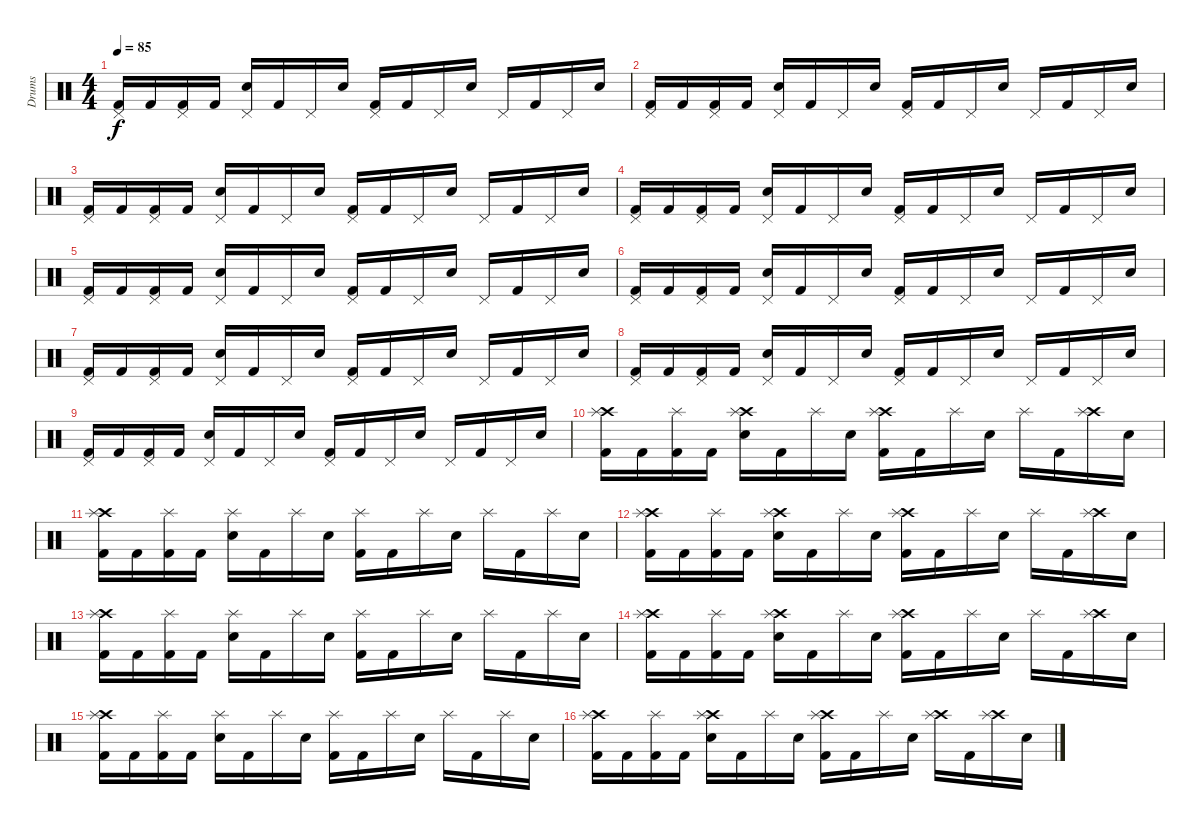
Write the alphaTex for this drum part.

\track ("Drums" "Drums") {instrument percussion}
\staff {score}
\articulation defaults
\ts (4 4)
\tempo 85
\clef neutral
\ks c
("Pedal Hi-Hat (hit)" "Kick (hit) 2").16{dy f} "Kick (hit) 2".16 ("Pedal Hi-Hat (hit)" "Kick (hit) 2").16 "Kick (hit) 2".16 ("Pedal Hi-Hat (hit)" "Snare (hit) 2").16 "Kick (hit) 2".16 "Pedal Hi-Hat (hit)".16 "Snare (hit) 2".16 ("Pedal Hi-Hat (hit)" "Kick (hit) 2").16 "Kick (hit) 2".16 "Pedal Hi-Hat (hit)".16 "Snare (hit) 2".16 "Pedal Hi-Hat (hit)".16 "Kick (hit) 2".16 "Pedal Hi-Hat (hit)".16 "Snare (hit) 2".16 |
("Pedal Hi-Hat (hit)" "Kick (hit) 2").16 "Kick (hit) 2".16 ("Pedal Hi-Hat (hit)" "Kick (hit) 2").16 "Kick (hit) 2".16 ("Pedal Hi-Hat (hit)" "Snare (hit) 2").16 "Kick (hit) 2".16 "Pedal Hi-Hat (hit)".16 "Snare (hit) 2".16 ("Pedal Hi-Hat (hit)" "Kick (hit) 2").16 "Kick (hit) 2".16 "Pedal Hi-Hat (hit)".16 "Snare (hit) 2".16 "Pedal Hi-Hat (hit)".16 "Kick (hit) 2".16 "Pedal Hi-Hat (hit)".16 "Snare (hit) 2".16 |
("Pedal Hi-Hat (hit)" "Kick (hit) 2").16 "Kick (hit) 2".16 ("Pedal Hi-Hat (hit)" "Kick (hit) 2").16 "Kick (hit) 2".16 ("Pedal Hi-Hat (hit)" "Snare (hit) 2").16 "Kick (hit) 2".16 "Pedal Hi-Hat (hit)".16 "Snare (hit) 2".16 ("Pedal Hi-Hat (hit)" "Kick (hit) 2").16 "Kick (hit) 2".16 "Pedal Hi-Hat (hit)".16 "Snare (hit) 2".16 "Pedal Hi-Hat (hit)".16 "Kick (hit) 2".16 "Pedal Hi-Hat (hit)".16 "Snare (hit) 2".16 |
("Pedal Hi-Hat (hit)" "Kick (hit) 2").16 "Kick (hit) 2".16 ("Pedal Hi-Hat (hit)" "Kick (hit) 2").16 "Kick (hit) 2".16 ("Pedal Hi-Hat (hit)" "Snare (hit) 2").16 "Kick (hit) 2".16 "Pedal Hi-Hat (hit)".16 "Snare (hit) 2".16 ("Pedal Hi-Hat (hit)" "Kick (hit) 2").16 "Kick (hit) 2".16 "Pedal Hi-Hat (hit)".16 "Snare (hit) 2".16 "Pedal Hi-Hat (hit)".16 "Kick (hit) 2".16 "Pedal Hi-Hat (hit)".16 "Snare (hit) 2".16 |
("Pedal Hi-Hat (hit)" "Kick (hit) 2").16 "Kick (hit) 2".16 ("Pedal Hi-Hat (hit)" "Kick (hit) 2").16 "Kick (hit) 2".16 ("Pedal Hi-Hat (hit)" "Snare (hit) 2").16 "Kick (hit) 2".16 "Pedal Hi-Hat (hit)".16 "Snare (hit) 2".16 ("Pedal Hi-Hat (hit)" "Kick (hit) 2").16 "Kick (hit) 2".16 "Pedal Hi-Hat (hit)".16 "Snare (hit) 2".16 "Pedal Hi-Hat (hit)".16 "Kick (hit) 2".16 "Pedal Hi-Hat (hit)".16 "Snare (hit) 2".16 |
("Pedal Hi-Hat (hit)" "Kick (hit) 2").16 "Kick (hit) 2".16 ("Pedal Hi-Hat (hit)" "Kick (hit) 2").16 "Kick (hit) 2".16 ("Pedal Hi-Hat (hit)" "Snare (hit) 2").16 "Kick (hit) 2".16 "Pedal Hi-Hat (hit)".16 "Snare (hit) 2".16 ("Pedal Hi-Hat (hit)" "Kick (hit) 2").16 "Kick (hit) 2".16 "Pedal Hi-Hat (hit)".16 "Snare (hit) 2".16 "Pedal Hi-Hat (hit)".16 "Kick (hit) 2".16 "Pedal Hi-Hat (hit)".16 "Snare (hit) 2".16 |
("Pedal Hi-Hat (hit)" "Kick (hit) 2").16 "Kick (hit) 2".16 ("Pedal Hi-Hat (hit)" "Kick (hit) 2").16 "Kick (hit) 2".16 ("Pedal Hi-Hat (hit)" "Snare (hit) 2").16 "Kick (hit) 2".16 "Pedal Hi-Hat (hit)".16 "Snare (hit) 2".16 ("Pedal Hi-Hat (hit)" "Kick (hit) 2").16 "Kick (hit) 2".16 "Pedal Hi-Hat (hit)".16 "Snare (hit) 2".16 "Pedal Hi-Hat (hit)".16 "Kick (hit) 2".16 "Pedal Hi-Hat (hit)".16 "Snare (hit) 2".16 |
("Pedal Hi-Hat (hit)" "Kick (hit) 2").16 "Kick (hit) 2".16 ("Pedal Hi-Hat (hit)" "Kick (hit) 2").16 "Kick (hit) 2".16 ("Pedal Hi-Hat (hit)" "Snare (hit) 2").16 "Kick (hit) 2".16 "Pedal Hi-Hat (hit)".16 "Snare (hit) 2".16 ("Pedal Hi-Hat (hit)" "Kick (hit) 2").16 "Kick (hit) 2".16 "Pedal Hi-Hat (hit)".16 "Snare (hit) 2".16 "Pedal Hi-Hat (hit)".16 "Kick (hit) 2".16 "Pedal Hi-Hat (hit)".16 "Snare (hit) 2".16 |
("Pedal Hi-Hat (hit)" "Kick (hit) 2").16 "Kick (hit) 2".16 ("Pedal Hi-Hat (hit)" "Kick (hit) 2").16 "Kick (hit) 2".16 ("Pedal Hi-Hat (hit)" "Snare (hit) 2").16 "Kick (hit) 2".16 "Pedal Hi-Hat (hit)".16 "Snare (hit) 2".16 ("Pedal Hi-Hat (hit)" "Kick (hit) 2").16 "Kick (hit) 2".16 "Pedal Hi-Hat (hit)".16 "Snare (hit) 2".16 "Pedal Hi-Hat (hit)".16 "Kick (hit) 2".16 "Pedal Hi-Hat (hit)".16 "Snare (hit) 2".16 |
("Crash high (hit)" "Splash (hit)" "Kick (hit) 2").16 "Kick (hit) 2".16 ("Splash (hit)" "Kick (hit) 2").16 "Kick (hit) 2".16 ("Crash high (hit)" "Splash (hit)" "Snare (hit) 2").16 "Kick (hit) 2".16 "Splash (hit)".16 "Snare (hit) 2".16 ("Crash high (hit)" "Splash (hit)" "Kick (hit) 2").16 "Kick (hit) 2".16 "Splash (hit)".16 "Snare (hit) 2".16 "Splash (hit)".16 "Kick (hit) 2".16 ("Crash high (hit)" "Splash (hit)").16 "Snare (hit) 2".16 |
("Crash high (hit)" "Splash (hit)" "Kick (hit) 2").16 "Kick (hit) 2".16 ("Splash (hit)" "Kick (hit) 2").16 "Kick (hit) 2".16 ("Splash (hit)" "Snare (hit) 2").16 "Kick (hit) 2".16 "Splash (hit)".16 "Snare (hit) 2".16 ("Splash (hit)" "Kick (hit) 2").16 "Kick (hit) 2".16 "Splash (hit)".16 "Snare (hit) 2".16 "Splash (hit)".16 "Kick (hit) 2".16 "Splash (hit)".16 "Snare (hit) 2".16 |
("Crash high (hit)" "Splash (hit)" "Kick (hit) 2").16 "Kick (hit) 2".16 ("Splash (hit)" "Kick (hit) 2").16 "Kick (hit) 2".16 ("Crash high (hit)" "Splash (hit)" "Snare (hit) 2").16 "Kick (hit) 2".16 "Splash (hit)".16 "Snare (hit) 2".16 ("Crash high (hit)" "Splash (hit)" "Kick (hit) 2").16 "Kick (hit) 2".16 "Splash (hit)".16 "Snare (hit) 2".16 "Splash (hit)".16 "Kick (hit) 2".16 ("Crash high (hit)" "Splash (hit)").16 "Snare (hit) 2".16 |
("Crash high (hit)" "Splash (hit)" "Kick (hit) 2").16 "Kick (hit) 2".16 ("Splash (hit)" "Kick (hit) 2").16 "Kick (hit) 2".16 ("Splash (hit)" "Snare (hit) 2").16 "Kick (hit) 2".16 "Splash (hit)".16 "Snare (hit) 2".16 ("Splash (hit)" "Kick (hit) 2").16 "Kick (hit) 2".16 "Splash (hit)".16 "Snare (hit) 2".16 "Splash (hit)".16 "Kick (hit) 2".16 "Splash (hit)".16 "Snare (hit) 2".16 |
("Crash high (hit)" "Splash (hit)" "Kick (hit) 2").16 "Kick (hit) 2".16 ("Splash (hit)" "Kick (hit) 2").16 "Kick (hit) 2".16 ("Crash high (hit)" "Splash (hit)" "Snare (hit) 2").16 "Kick (hit) 2".16 "Splash (hit)".16 "Snare (hit) 2".16 ("Crash high (hit)" "Splash (hit)" "Kick (hit) 2").16 "Kick (hit) 2".16 "Splash (hit)".16 "Snare (hit) 2".16 "Splash (hit)".16 "Kick (hit) 2".16 ("Crash high (hit)" "Splash (hit)").16 "Snare (hit) 2".16 |
("Crash high (hit)" "Splash (hit)" "Kick (hit) 2").16 "Kick (hit) 2".16 ("Splash (hit)" "Kick (hit) 2").16 "Kick (hit) 2".16 ("Splash (hit)" "Snare (hit) 2").16 "Kick (hit) 2".16 "Splash (hit)".16 "Snare (hit) 2".16 ("Splash (hit)" "Kick (hit) 2").16 "Kick (hit) 2".16 "Splash (hit)".16 "Snare (hit) 2".16 "Splash (hit)".16 "Kick (hit) 2".16 "Splash (hit)".16 "Snare (hit) 2".16 |
("Crash high (hit)" "Splash (hit)" "Kick (hit) 2").16 "Kick (hit) 2".16 ("Splash (hit)" "Kick (hit) 2").16 "Kick (hit) 2".16 ("Crash high (hit)" "Splash (hit)" "Snare (hit) 2").16 "Kick (hit) 2".16 "Splash (hit)".16 "Snare (hit) 2".16 ("Crash high (hit)" "Splash (hit)" "Kick (hit) 2").16 "Kick (hit) 2".16 "Splash (hit)".16 "Snare (hit) 2".16 ("Crash high (hit)" "Splash (hit)").16 "Kick (hit) 2".16 ("Crash high (hit)" "Splash (hit)").16 "Snare (hit) 2".16
